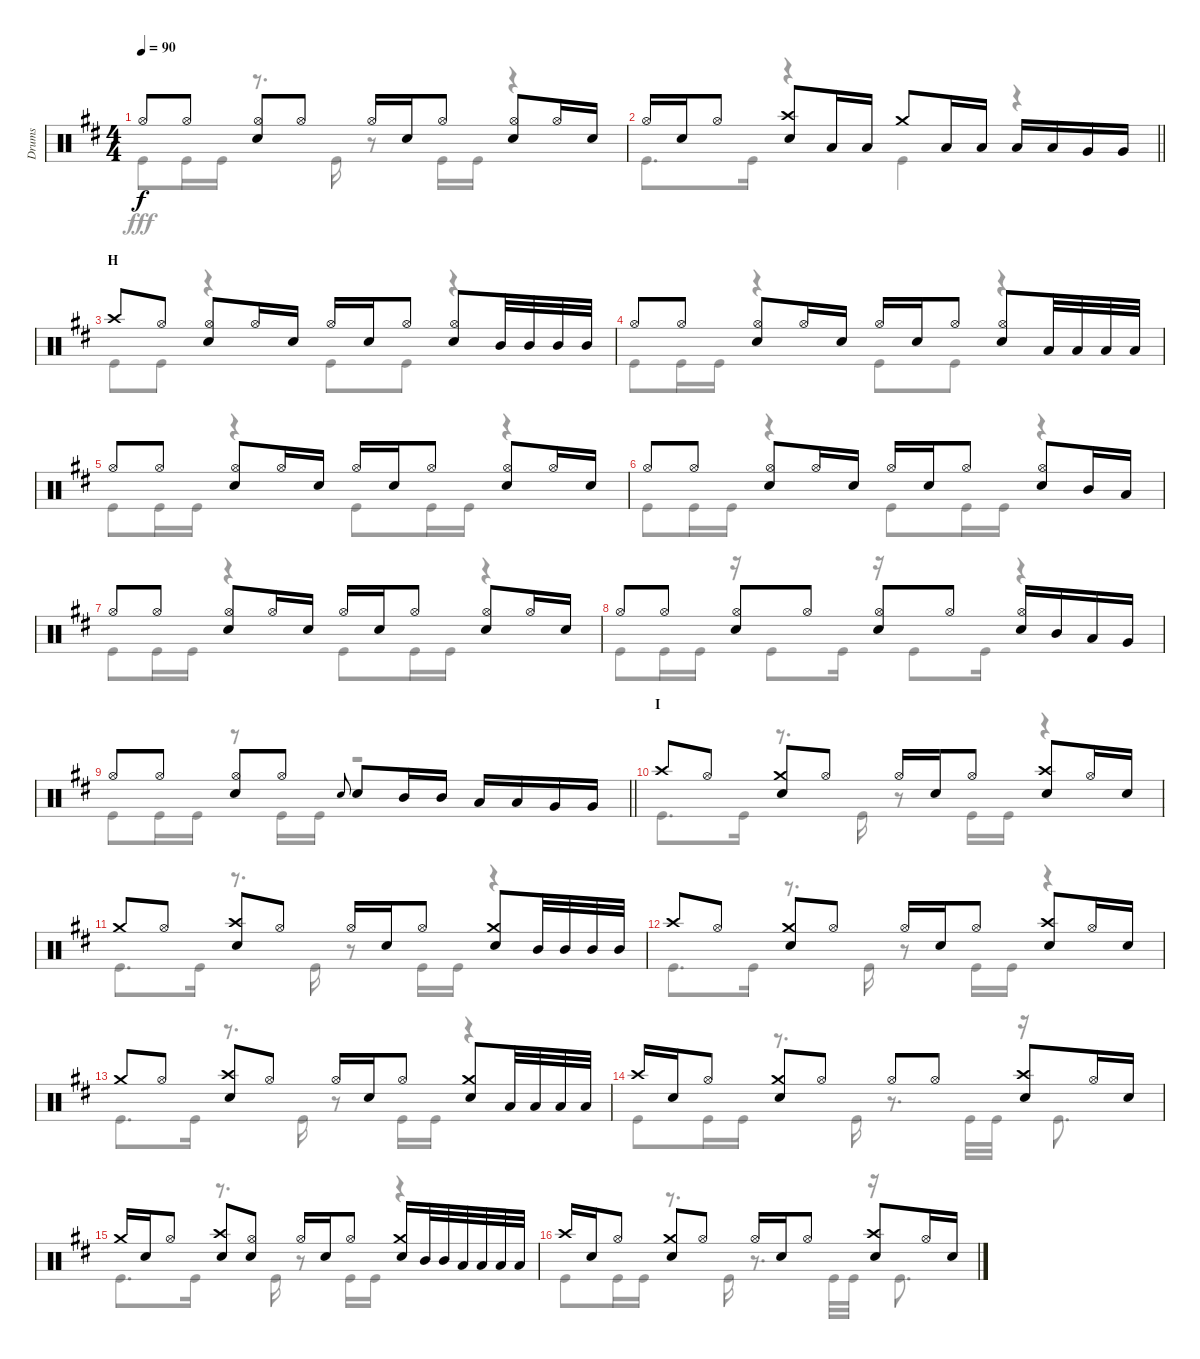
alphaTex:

\track ("Drums" "Drums") {instrument percussion}
\staff {score}
\articulation defaults
\voice
\ts (4 4)
\tempo 90
\clef neutral
\ks d "Hi-Hat (open)".8{dy f} "Hi-Hat (open)".8
("Hi-Hat (open)" "Snare (hit) 2").8 "Hi-Hat (open)".8 "Hi-Hat (open)".16 "Snare (hit) 2".16 "Hi-Hat (open)".8 ("Hi-Hat (open)" "Snare (hit) 2").8 "Hi-Hat (open)".16 "Snare (hit) 2".16 |
\barLineRight lightlight "Hi-Hat (open)".16 "Snare (hit) 2".16 "Hi-Hat (open)".8
("Crash high (hit)" "Snare (hit) 2").8 "Low Tom (hit)".16 "Low Tom (hit)".16 "Crash medium (hit)".8 "Low Tom (hit)".16 "Low Tom (hit)".16 "Low Tom (hit)".16 "Low Tom (hit)".16 "Very Low Tom (hit)".16 "Very Low Tom (hit)".16 |
\section ("" "H")
"Crash high (hit)".8 "Hi-Hat (open)".8 ("Hi-Hat (open)" "Snare (hit) 2").8 "Hi-Hat (open)".16 "Snare (hit) 2".16 "Hi-Hat (open)".16 "Snare (hit) 2".16 "Hi-Hat (open)".8 ("Hi-Hat (open)" "Snare (hit) 2").8 "Mid Tom (hit)".32 "Mid Tom (hit)".32 "Mid Tom (hit)".32 "Mid Tom (hit)".32 |
"Hi-Hat (open)".8 "Hi-Hat (open)".8 ("Hi-Hat (open)" "Snare (hit) 2").8 "Hi-Hat (open)".16 "Snare (hit) 2".16 "Hi-Hat (open)".16 "Snare (hit) 2".16 "Hi-Hat (open)".8 ("Hi-Hat (open)" "Snare (hit) 2").8 "Low Tom (hit)".32 "Low Tom (hit)".32 "Low Tom (hit)".32 "Low Tom (hit)".32 |
"Hi-Hat (open)".8 "Hi-Hat (open)".8 ("Hi-Hat (open)" "Snare (hit) 2").8 "Hi-Hat (open)".16 "Snare (hit) 2".16 "Hi-Hat (open)".16 "Snare (hit) 2".16 "Hi-Hat (open)".8 ("Hi-Hat (open)" "Snare (hit) 2").8 "Hi-Hat (open)".16 "Snare (hit) 2".16 |
"Hi-Hat (open)".8 "Hi-Hat (open)".8 ("Hi-Hat (open)" "Snare (hit) 2").8 "Hi-Hat (open)".16 "Snare (hit) 2".16 "Hi-Hat (open)".16 "Snare (hit) 2".16 "Hi-Hat (open)".8 ("Hi-Hat (open)" "Snare (hit) 2").8 "Mid Tom (hit)".16 "Low Tom (hit)".16 |
"Hi-Hat (open)".8 "Hi-Hat (open)".8 ("Hi-Hat (open)" "Snare (hit) 2").8 "Hi-Hat (open)".16 "Snare (hit) 2".16 "Hi-Hat (open)".16 "Snare (hit) 2".16 "Hi-Hat (open)".8 ("Hi-Hat (open)" "Snare (hit) 2").8 "Hi-Hat (open)".16 "Snare (hit) 2".16 |
"Hi-Hat (open)".8 "Hi-Hat (open)".8 ("Hi-Hat (open)" "Snare (hit) 2").8 "Hi-Hat (open)".8 ("Hi-Hat (open)" "Snare (hit) 2").8 "Hi-Hat (open)".8 ("Hi-Hat (open)" "Snare (hit) 2").16 "Mid Tom (hit)".16 "Low Tom (hit)".16 "Very Low Tom (hit)".16 |
\barLineRight lightlight "Hi-Hat (open)".8 "Hi-Hat (open)".8
("Hi-Hat (open)" "Snare (hit) 2").8 "Hi-Hat (open)".8 "Snare (hit) 2".8{gr onbeat} "Snare (hit) 2".8 "Mid Tom (hit)".16 "Mid Tom (hit)".16 "Low Tom (hit)".16 "Low Tom (hit)".16 "Very Low Tom (hit)".16 "Very Low Tom (hit)".16 |
\section ("" "I")
"Crash high (hit)".8 "Hi-Hat (open)".8 ("Crash medium (hit)" "Snare (hit) 2").8 "Hi-Hat (open)".8 "Hi-Hat (open)".16 "Snare (hit) 2".16 "Hi-Hat (open)".8 ("Crash high (hit)" "Snare (hit) 2").8 "Hi-Hat (open)".16 "Snare (hit) 2".16 |
"Crash medium (hit)".8 "Hi-Hat (open)".8 ("Crash high (hit)" "Snare (hit) 2").8 "Hi-Hat (open)".8 "Hi-Hat (open)".16 "Snare (hit) 2".16 "Hi-Hat (open)".8 ("Crash medium (hit)" "Snare (hit) 2").8 "Mid Tom (hit)".32 "Mid Tom (hit)".32 "Mid Tom (hit)".32 "Mid Tom (hit)".32 |
"Crash high (hit)".8 "Hi-Hat (open)".8 ("Crash medium (hit)" "Snare (hit) 2").8 "Hi-Hat (open)".8 "Hi-Hat (open)".16 "Snare (hit) 2".16 "Hi-Hat (open)".8 ("Crash high (hit)" "Snare (hit) 2").8 "Hi-Hat (open)".16 "Snare (hit) 2".16 |
"Crash medium (hit)".8 "Hi-Hat (open)".8 ("Crash high (hit)" "Snare (hit) 2").8 "Hi-Hat (open)".8 "Hi-Hat (open)".16 "Snare (hit) 2".16 "Hi-Hat (open)".8 ("Crash medium (hit)" "Snare (hit) 2").8 "Low Tom (hit)".32 "Low Tom (hit)".32 "Low Tom (hit)".32 "Low Tom (hit)".32 |
"Crash high (hit)".16 "Snare (hit) 2".16 "Hi-Hat (open)".8 ("Crash medium (hit)" "Snare (hit) 2").8 "Hi-Hat (open)".8 "Hi-Hat (open)".8 "Hi-Hat (open)".8 ("Crash high (hit)" "Snare (hit) 2").8 "Hi-Hat (open)".16 "Snare (hit) 2".16 |
"Crash medium (hit)".16 "Snare (hit) 2".16 "Hi-Hat (open)".8 ("Crash high (hit)" "Snare (hit) 2").8 ("Hi-Hat (open)" "Snare (hit) 2").8 "Hi-Hat (open)".16 "Snare (hit) 2".16 "Hi-Hat (open)".8 ("Crash medium (hit)" "Snare (hit) 2").16 "Mid Tom (hit)".32 "Mid Tom (hit)".32 "Low Tom (hit)".32 "Low Tom (hit)".32 "Low Tom (hit)".32 "Low Tom (hit)".32 |
"Crash high (hit)".16 "Snare (hit) 2".16 "Hi-Hat (open)".8 ("Crash medium (hit)" "Snare (hit) 2").8 "Hi-Hat (open)".8 "Hi-Hat (open)".16 "Snare (hit) 2".16 "Hi-Hat (open)".8 ("Crash high (hit)" "Snare (hit) 2").8 "Hi-Hat (open)".16 "Snare (hit) 2".16
\voice
\clef neutral
\ottava regular
\simile none
\ks d "Kick (hit)".8{dy fff} "Kick (hit)".16 "Kick (hit)".16
r.8{d} "Kick (hit)".16 r.8 "Kick (hit)".16 "Kick (hit)".16 r.4 |
\barLineRight lightlight "Kick (hit)".8{d} "Kick (hit)".16
r.4 "Kick (hit)".4 r.4 |
"Kick (hit)".8 "Kick (hit)".8 r.4 "Kick (hit)".8 "Kick (hit)".8 r.4 |
"Kick (hit)".8 "Kick (hit)".16 "Kick (hit)".16 r.4 "Kick (hit)".8 "Kick (hit)".8 r.4 |
"Kick (hit)".8 "Kick (hit)".16 "Kick (hit)".16 r.4 "Kick (hit)".8 "Kick (hit)".16 "Kick (hit)".16 r.4 |
"Kick (hit)".8 "Kick (hit)".16 "Kick (hit)".16 r.4 "Kick (hit)".8 "Kick (hit)".16 "Kick (hit)".16 r.4 |
"Kick (hit)".8 "Kick (hit)".16 "Kick (hit)".16 r.4 "Kick (hit)".8 "Kick (hit)".16 "Kick (hit)".16 r.4 |
"Kick (hit)".8 "Kick (hit)".16 "Kick (hit)".16 r.16 "Kick (hit)".8 "Kick (hit)".16 r.16 "Kick (hit)".8 "Kick (hit)".16 r.4 |
\barLineRight lightlight "Kick (hit)".8 "Kick (hit)".16 "Kick (hit)".16
r.8 "Kick (hit)".16 "Kick (hit)".16 r.2 |
"Kick (hit)".8{d} "Kick (hit)".16 r.8{d} "Kick (hit)".16 r.8 "Kick (hit)".16 "Kick (hit)".16 r.4 |
"Kick (hit)".8{d} "Kick (hit)".16 r.8{d} "Kick (hit)".16 r.8 "Kick (hit)".16 "Kick (hit)".16 r.4 |
"Kick (hit)".8{d} "Kick (hit)".16 r.8{d} "Kick (hit)".16 r.8 "Kick (hit)".16 "Kick (hit)".16 r.4 |
"Kick (hit)".8{d} "Kick (hit)".16 r.8{d} "Kick (hit)".16 r.8 "Kick (hit)".16 "Kick (hit)".16 r.4 |
"Kick (hit)".8 "Kick (hit)".16 "Kick (hit)".16 r.8{d} "Kick (hit)".16 r.8{d} "Kick (hit)".32 "Kick (hit)".32 r.16 "Kick (hit)".8{d} |
"Kick (hit)".8{d} "Kick (hit)".16 r.8{d} "Kick (hit)".16 r.8 "Kick (hit)".16 "Kick (hit)".16 r.4 |
"Kick (hit)".8 "Kick (hit)".16 "Kick (hit)".16 r.8{d} "Kick (hit)".16 r.8{d} "Kick (hit)".32 "Kick (hit)".32 r.16 "Kick (hit)".8{d}
